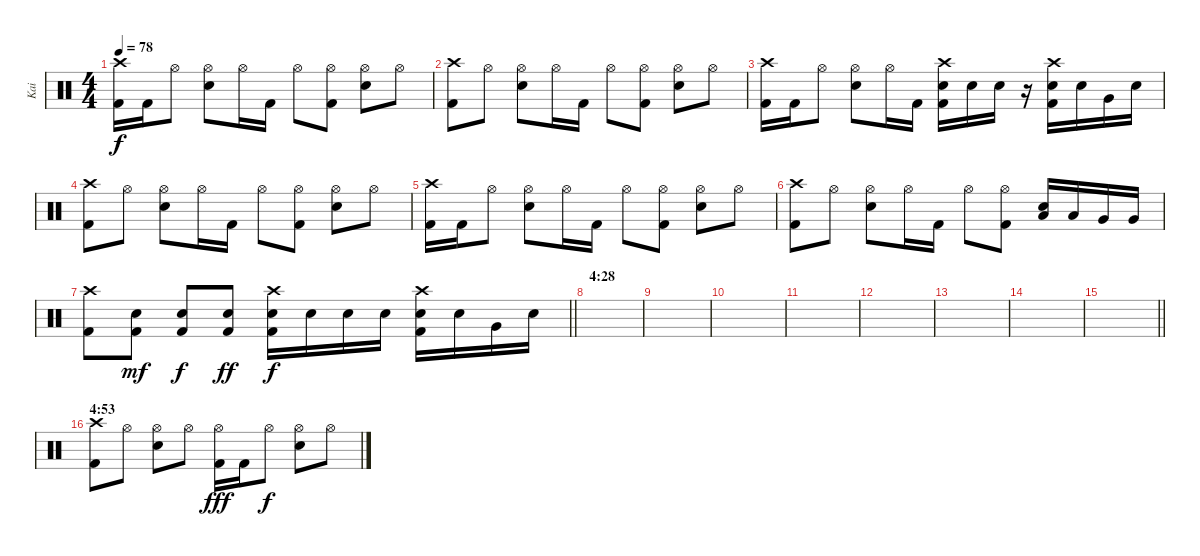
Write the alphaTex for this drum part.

\track ("Kai" "Kai") {instrument percussion}
\staff {score}
\articulation defaults
\ts (4 4)
\tempo 78
\clef neutral
\ks c
("Crash high (hit)" "Kick (hit) 2").16{dy f} "Kick (hit) 2".16 "Hi-Hat (open)".8 ("Hi-Hat (open)" "Electric Snare (hit)").8 "Hi-Hat (open)".16 "Kick (hit) 2".16 "Hi-Hat (open)".8 ("Hi-Hat (open)" "Kick (hit) 2").8 ("Hi-Hat (open)" "Electric Snare (hit)").8 "Hi-Hat (open)".8 |
("Crash high (hit)" "Kick (hit) 2").8 "Hi-Hat (open)".8 ("Hi-Hat (open)" "Electric Snare (hit)").8 "Hi-Hat (open)".16 "Kick (hit) 2".16 "Hi-Hat (open)".8 ("Hi-Hat (open)" "Kick (hit) 2").8 ("Hi-Hat (open)" "Electric Snare (hit)").8 "Hi-Hat (open)".8 |
("Crash high (hit)" "Kick (hit) 2").16 "Kick (hit) 2".16 "Hi-Hat (open)".8 ("Hi-Hat (open)" "Electric Snare (hit)").8 "Hi-Hat (open)".16 "Kick (hit) 2".16 ("Crash high (hit)" "Electric Snare (hit)" "Kick (hit) 2").16 "Electric Snare (hit)".16 "Electric Snare (hit)".16 r.16 ("Crash high (hit)" "Electric Snare (hit)" "Kick (hit) 2").16 "Electric Snare (hit)".16 "Very Low Tom (hit)".16 "Electric Snare (hit)".16 |
("Crash high (hit)" "Kick (hit) 2").8 "Hi-Hat (open)".8 ("Hi-Hat (open)" "Electric Snare (hit)").8 "Hi-Hat (open)".16 "Kick (hit) 2".16 "Hi-Hat (open)".8 ("Hi-Hat (open)" "Kick (hit) 2").8 ("Hi-Hat (open)" "Electric Snare (hit)").8 "Hi-Hat (open)".8 |
("Crash high (hit)" "Kick (hit) 2").16 "Kick (hit) 2".16 "Hi-Hat (open)".8 ("Hi-Hat (open)" "Electric Snare (hit)").8 "Hi-Hat (open)".16 "Kick (hit) 2".16 "Hi-Hat (open)".8 ("Hi-Hat (open)" "Kick (hit) 2").8 ("Hi-Hat (open)" "Electric Snare (hit)").8 "Hi-Hat (open)".8 |
("Crash high (hit)" "Kick (hit) 2").8 "Hi-Hat (open)".8 ("Hi-Hat (open)" "Electric Snare (hit)").8 "Hi-Hat (open)".16 "Kick (hit) 2".16 "Hi-Hat (open)".8 ("Hi-Hat (open)" "Kick (hit) 2").8 ("Low Tom (hit)" "Electric Snare (hit)").16 "Low Tom (hit)".16 "Very Low Tom (hit)".16 "Very Low Tom (hit)".16 |
\barLineRight lightlight
("Crash high (hit)" "Kick (hit) 2").8 ("Electric Snare (hit)" "Kick (hit) 2").8{dy mf} ("Electric Snare (hit)" "Kick (hit) 2").8{dy f} ("Electric Snare (hit)" "Kick (hit) 2").8{dy ff} ("Crash high (hit)" "Electric Snare (hit)" "Kick (hit) 2").16{dy f} "Electric Snare (hit)".16 "Electric Snare (hit)".16 "Electric Snare (hit)".16 ("Crash high (hit)" "Electric Snare (hit)" "Kick (hit) 2").16 "Electric Snare (hit)".16 "Very Low Tom (hit)".16 "Electric Snare (hit)".16 |
\section ("" "4:28")
|
|
|
|
|
|
|
\barLineRight lightlight
|
\section ("" "4:53")
("Crash high (hit)" "Kick (hit) 2").8 "Hi-Hat (open)".8 ("Hi-Hat (open)" "Electric Snare (hit)").8 "Hi-Hat (open)".8 ("Hi-Hat (open)" "Kick (hit) 2").16{dy fff} "Kick (hit) 2".16 "Hi-Hat (open)".8{dy f} ("Hi-Hat (open)" "Electric Snare (hit)").8 "Hi-Hat (open)".8
